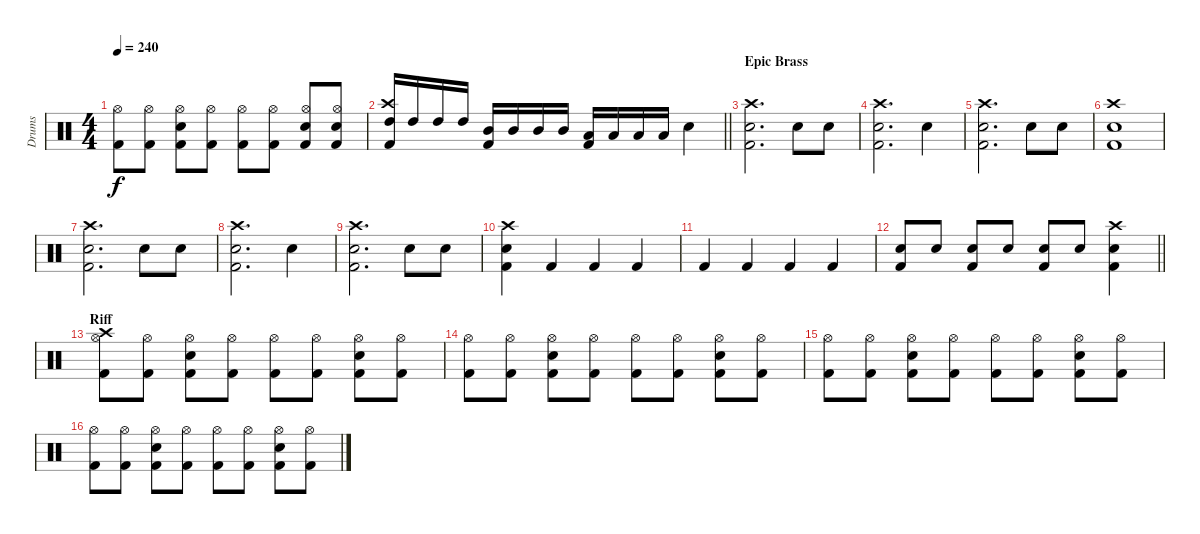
\track ("Drums" "Drums") {instrument percussion}
\staff {score}
\articulation defaults
\ts (4 4)
\tempo 240
\clef neutral
\ks c
("Kick (hit) 2" "Hi-Hat (open)").8{dy f} ("Kick (hit) 2" "Hi-Hat (open)").8 ("Kick (hit) 2" "Hi-Hat (open)" "Snare (hit) 2").8 ("Kick (hit) 2" "Hi-Hat (open)").8 ("Kick (hit) 2" "Hi-Hat (open)").8 ("Kick (hit) 2" "Hi-Hat (open)").8 ("Kick (hit) 2" "Hi-Hat (open)" "Snare (hit) 2").8 ("Kick (hit) 2" "Hi-Hat (open)" "Snare (hit) 2").8 |
\barLineRight lightlight
("Crash high (hit)" "High Tom (hit)" "Kick (hit) 2").16 "High Tom (hit)".16 "High Tom (hit)".16 "High Tom (hit)".16 ("Mid Tom (hit)" "Kick (hit) 2").16 "Mid Tom (hit)".16 "Mid Tom (hit)".16 "Mid Tom (hit)".16 ("Low Tom (hit)" "Kick (hit) 2").16 "Low Tom (hit)".16 "Low Tom (hit)".16 "Low Tom (hit)".16 "Snare (hit) 2".4 |
\section ("" "Epic Brass")
("Crash high (hit)" "Snare (hit) 2" "Kick (hit) 2").2{d} "Snare (hit) 2".8 "Snare (hit) 2".8 |
("Crash high (hit)" "Snare (hit) 2" "Kick (hit) 2").2{d} "Snare (hit) 2".4 |
("Crash high (hit)" "Snare (hit) 2" "Kick (hit) 2").2{d} "Snare (hit) 2".8 "Snare (hit) 2".8 |
("Crash high (hit)" "Snare (hit) 2" "Kick (hit) 2").1 |
("Crash high (hit)" "Snare (hit) 2" "Kick (hit) 2").2{d} "Snare (hit) 2".8 "Snare (hit) 2".8 |
("Crash high (hit)" "Snare (hit) 2" "Kick (hit) 2").2{d} "Snare (hit) 2".4 |
("Crash high (hit)" "Snare (hit) 2" "Kick (hit) 2").2{d} "Snare (hit) 2".8 "Snare (hit) 2".8 |
("Crash high (hit)" "Snare (hit) 2" "Kick (hit) 2").4 "Kick (hit) 2".4 "Kick (hit) 2".4 "Kick (hit) 2".4 |
"Kick (hit) 2".4 "Kick (hit) 2".4 "Kick (hit) 2".4 "Kick (hit) 2".4 |
\barLineRight lightlight
("Snare (hit) 2" "Kick (hit) 2").8 "Snare (hit) 2".8 ("Snare (hit) 2" "Kick (hit) 2").8 "Snare (hit) 2".8 ("Snare (hit) 2" "Kick (hit) 2").8 "Snare (hit) 2".8 ("Crash high (hit)" "Snare (hit) 2" "Kick (hit) 2").4 |
\section ("" "Riff")
("Kick (hit) 2" "Hi-Hat (open)" "Crash high (hit)").8 ("Kick (hit) 2" "Hi-Hat (open)").8 ("Kick (hit) 2" "Snare (hit) 2" "Hi-Hat (open)").8 ("Kick (hit) 2" "Hi-Hat (open)").8 ("Kick (hit) 2" "Hi-Hat (open)").8 ("Kick (hit) 2" "Hi-Hat (open)").8 ("Kick (hit) 2" "Snare (hit) 2" "Hi-Hat (open)").8 ("Kick (hit) 2" "Hi-Hat (open)").8 |
("Kick (hit) 2" "Hi-Hat (open)").8 ("Kick (hit) 2" "Hi-Hat (open)").8 ("Kick (hit) 2" "Snare (hit) 2" "Hi-Hat (open)").8 ("Kick (hit) 2" "Hi-Hat (open)").8 ("Kick (hit) 2" "Hi-Hat (open)").8 ("Kick (hit) 2" "Hi-Hat (open)").8 ("Kick (hit) 2" "Snare (hit) 2" "Hi-Hat (open)").8 ("Kick (hit) 2" "Hi-Hat (open)").8 |
("Kick (hit) 2" "Hi-Hat (open)").8 ("Kick (hit) 2" "Hi-Hat (open)").8 ("Kick (hit) 2" "Snare (hit) 2" "Hi-Hat (open)").8 ("Kick (hit) 2" "Hi-Hat (open)").8 ("Kick (hit) 2" "Hi-Hat (open)").8 ("Kick (hit) 2" "Hi-Hat (open)").8 ("Kick (hit) 2" "Snare (hit) 2" "Hi-Hat (open)").8 ("Kick (hit) 2" "Hi-Hat (open)").8 |
("Kick (hit) 2" "Hi-Hat (open)").8 ("Kick (hit) 2" "Hi-Hat (open)").8 ("Kick (hit) 2" "Snare (hit) 2" "Hi-Hat (open)").8 ("Kick (hit) 2" "Hi-Hat (open)").8 ("Kick (hit) 2" "Hi-Hat (open)").8 ("Kick (hit) 2" "Hi-Hat (open)").8 ("Kick (hit) 2" "Snare (hit) 2" "Hi-Hat (open)").8 ("Kick (hit) 2" "Hi-Hat (open)").8
